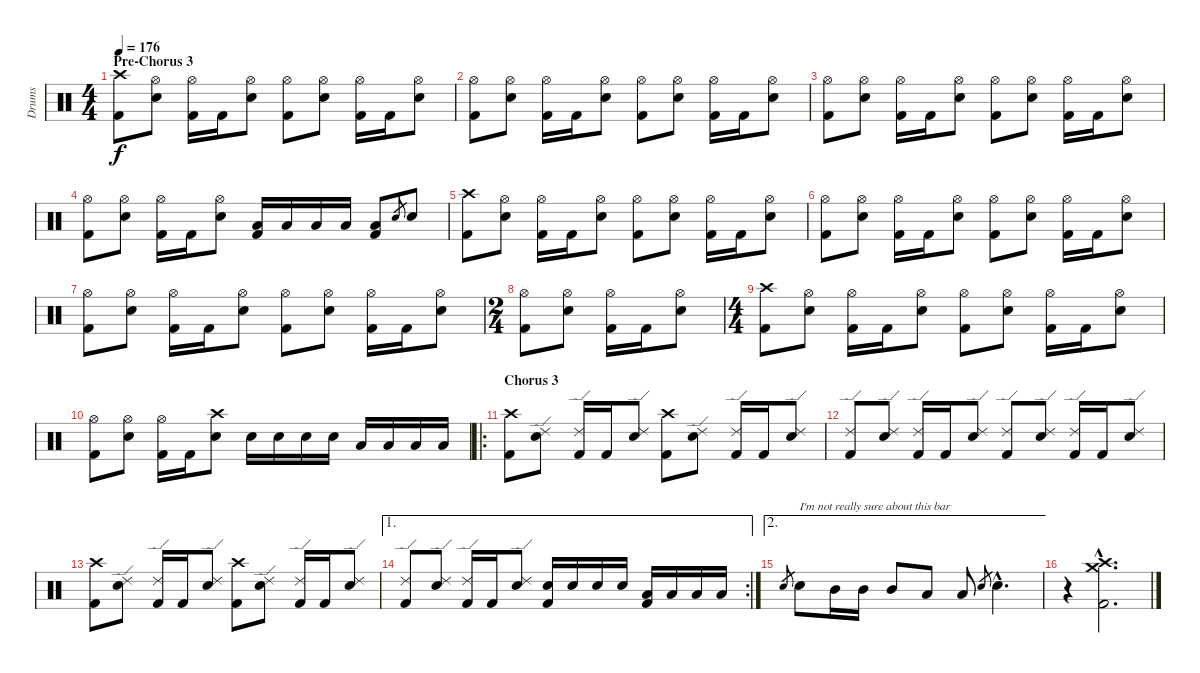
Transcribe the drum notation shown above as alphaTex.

\track ("Drums" "Drums") {instrument percussion}
\staff {score}
\articulation defaults
\ts (4 4)
\section ("" "Pre-Chorus 3")
\tempo 176
\clef neutral
\ks c
("Crash high (hit)" "Kick (hit) 2").8{dy f} ("Hi-Hat (open)" "Electric Snare (hit)").8 ("Hi-Hat (open)" "Kick (hit) 2").16 "Kick (hit) 2".16 ("Hi-Hat (open)" "Electric Snare (hit)").8 ("Hi-Hat (open)" "Kick (hit) 2").8 ("Hi-Hat (open)" "Electric Snare (hit)").8 ("Hi-Hat (open)" "Kick (hit) 2").16 "Kick (hit) 2".16 ("Hi-Hat (open)" "Electric Snare (hit)").8 |
("Hi-Hat (open)" "Kick (hit) 2").8 ("Hi-Hat (open)" "Electric Snare (hit)").8 ("Hi-Hat (open)" "Kick (hit) 2").16 "Kick (hit) 2".16 ("Hi-Hat (open)" "Electric Snare (hit)").8 ("Hi-Hat (open)" "Kick (hit) 2").8 ("Hi-Hat (open)" "Electric Snare (hit)").8 ("Hi-Hat (open)" "Kick (hit) 2").16 "Kick (hit) 2".16 ("Hi-Hat (open)" "Electric Snare (hit)").8 |
("Hi-Hat (open)" "Kick (hit) 2").8 ("Hi-Hat (open)" "Electric Snare (hit)").8 ("Hi-Hat (open)" "Kick (hit) 2").16 "Kick (hit) 2".16 ("Hi-Hat (open)" "Electric Snare (hit)").8 ("Hi-Hat (open)" "Kick (hit) 2").8 ("Hi-Hat (open)" "Electric Snare (hit)").8 ("Hi-Hat (open)" "Kick (hit) 2").16 "Kick (hit) 2".16 ("Hi-Hat (open)" "Electric Snare (hit)").8 |
("Hi-Hat (open)" "Kick (hit) 2").8 ("Hi-Hat (open)" "Electric Snare (hit)").8 ("Hi-Hat (open)" "Kick (hit) 2").16 "Kick (hit) 2".16 ("Hi-Hat (open)" "Electric Snare (hit)").8 ("Low Tom (hit)" "Kick (hit) 2").16 "Low Tom (hit)".16 "Low Tom (hit)".16 "Low Tom (hit)".16 ("Low Tom (hit)" "Kick (hit) 2").8 "Electric Snare (hit)".8{gr} "Electric Snare (hit)".8 |
("Crash high (hit)" "Kick (hit) 2").8 ("Hi-Hat (open)" "Electric Snare (hit)").8 ("Hi-Hat (open)" "Kick (hit) 2").16 "Kick (hit) 2".16 ("Hi-Hat (open)" "Electric Snare (hit)").8 ("Hi-Hat (open)" "Kick (hit) 2").8 ("Hi-Hat (open)" "Electric Snare (hit)").8 ("Hi-Hat (open)" "Kick (hit) 2").16 "Kick (hit) 2".16 ("Hi-Hat (open)" "Electric Snare (hit)").8 |
("Hi-Hat (open)" "Kick (hit) 2").8 ("Hi-Hat (open)" "Electric Snare (hit)").8 ("Hi-Hat (open)" "Kick (hit) 2").16 "Kick (hit) 2".16 ("Hi-Hat (open)" "Electric Snare (hit)").8 ("Hi-Hat (open)" "Kick (hit) 2").8 ("Hi-Hat (open)" "Electric Snare (hit)").8 ("Hi-Hat (open)" "Kick (hit) 2").16 "Kick (hit) 2".16 ("Hi-Hat (open)" "Electric Snare (hit)").8 |
("Hi-Hat (open)" "Kick (hit) 2").8 ("Hi-Hat (open)" "Electric Snare (hit)").8 ("Hi-Hat (open)" "Kick (hit) 2").16 "Kick (hit) 2".16 ("Hi-Hat (open)" "Electric Snare (hit)").8 ("Hi-Hat (open)" "Kick (hit) 2").8 ("Hi-Hat (open)" "Electric Snare (hit)").8 ("Hi-Hat (open)" "Kick (hit) 2").16 "Kick (hit) 2".16 ("Hi-Hat (open)" "Electric Snare (hit)").8 |
\ts (2 4)
("Hi-Hat (open)" "Kick (hit) 2").8 ("Hi-Hat (open)" "Electric Snare (hit)").8 ("Hi-Hat (open)" "Kick (hit) 2").16 "Kick (hit) 2".16 ("Hi-Hat (open)" "Electric Snare (hit)").8 |
\ts (4 4)
("Crash high (hit)" "Kick (hit) 2").8 ("Hi-Hat (open)" "Electric Snare (hit)").8 ("Hi-Hat (open)" "Kick (hit) 2").16 "Kick (hit) 2".16 ("Hi-Hat (open)" "Electric Snare (hit)").8 ("Hi-Hat (open)" "Kick (hit) 2").8 ("Hi-Hat (open)" "Electric Snare (hit)").8 ("Hi-Hat (open)" "Kick (hit) 2").16 "Kick (hit) 2".16 ("Hi-Hat (open)" "Electric Snare (hit)").8 |
("Hi-Hat (open)" "Kick (hit) 2").8 ("Hi-Hat (open)" "Electric Snare (hit)").8 ("Hi-Hat (open)" "Kick (hit) 2").16 "Kick (hit) 2".16 ("Crash high (hit)" "Electric Snare (hit)").8 "Electric Snare (hit)".16 "Electric Snare (hit)".16 "Electric Snare (hit)".16 "Electric Snare (hit)".16 "Low Tom (hit)".16 "Low Tom (hit)".16 "Low Tom (hit)".16 "Low Tom (hit)".16 |
\ro
\section ("" "Chorus 3")
("Crash high (hit)" "Kick (hit) 2").8 ("Ride (edge) 2" "Electric Snare (hit)").8 ("Ride (edge) 2" "Kick (hit) 2").16 "Kick (hit) 2".16 ("Ride (edge) 2" "Electric Snare (hit)").8 ("Crash high (hit)" "Kick (hit) 2").8 ("Ride (edge) 2" "Electric Snare (hit)").8 ("Ride (edge) 2" "Kick (hit) 2").16 "Kick (hit) 2".16 ("Ride (edge) 2" "Electric Snare (hit)").8 |
("Ride (edge) 2" "Kick (hit) 2").8 ("Ride (edge) 2" "Electric Snare (hit)").8 ("Ride (edge) 2" "Kick (hit) 2").16 "Kick (hit) 2".16 ("Ride (edge) 2" "Electric Snare (hit)").8 ("Ride (edge) 2" "Kick (hit) 2").8 ("Ride (edge) 2" "Electric Snare (hit)").8 ("Ride (edge) 2" "Kick (hit) 2").16 "Kick (hit) 2".16 ("Ride (edge) 2" "Electric Snare (hit)").8 |
("Crash high (hit)" "Kick (hit) 2").8 ("Ride (edge) 2" "Electric Snare (hit)").8 ("Ride (edge) 2" "Kick (hit) 2").16 "Kick (hit) 2".16 ("Ride (edge) 2" "Electric Snare (hit)").8 ("Crash high (hit)" "Kick (hit) 2").8 ("Ride (edge) 2" "Electric Snare (hit)").8 ("Ride (edge) 2" "Kick (hit) 2").16 "Kick (hit) 2".16 ("Ride (edge) 2" "Electric Snare (hit)").8 |
\ae 1
\rc 2
("Ride (edge) 2" "Kick (hit) 2").8 ("Ride (edge) 2" "Electric Snare (hit)").8 ("Ride (edge) 2" "Kick (hit) 2").16 "Kick (hit) 2".16 ("Ride (edge) 2" "Electric Snare (hit)").8 ("Electric Snare (hit)" "Kick (hit) 2").16 "Electric Snare (hit)".16 "Electric Snare (hit)".16 "Electric Snare (hit)".16 ("Low Tom (hit)" "Kick (hit) 2").16 "Low Tom (hit)".16 "Low Tom (hit)".16 "Low Tom (hit)".16 |
\ae 2 "Electric Snare (hit)".8{gr} "Electric Snare (hit)".8{txt "I'm not really sure about this bar"} "Mid Tom (hit)".16 "Mid Tom (hit)".16 "Mid Tom (hit)".8 "Low Tom (hit)".8 "Low Tom (hit)".8 "Electric Snare (hit)".8{gr} "Electric Snare (hit)"{hac}.4{d}
|
r.4 ("Crash high (hit)"{hac} "Crash medium (hit)"{hac} "Kick (hit) 2"{hac}).2{d}
